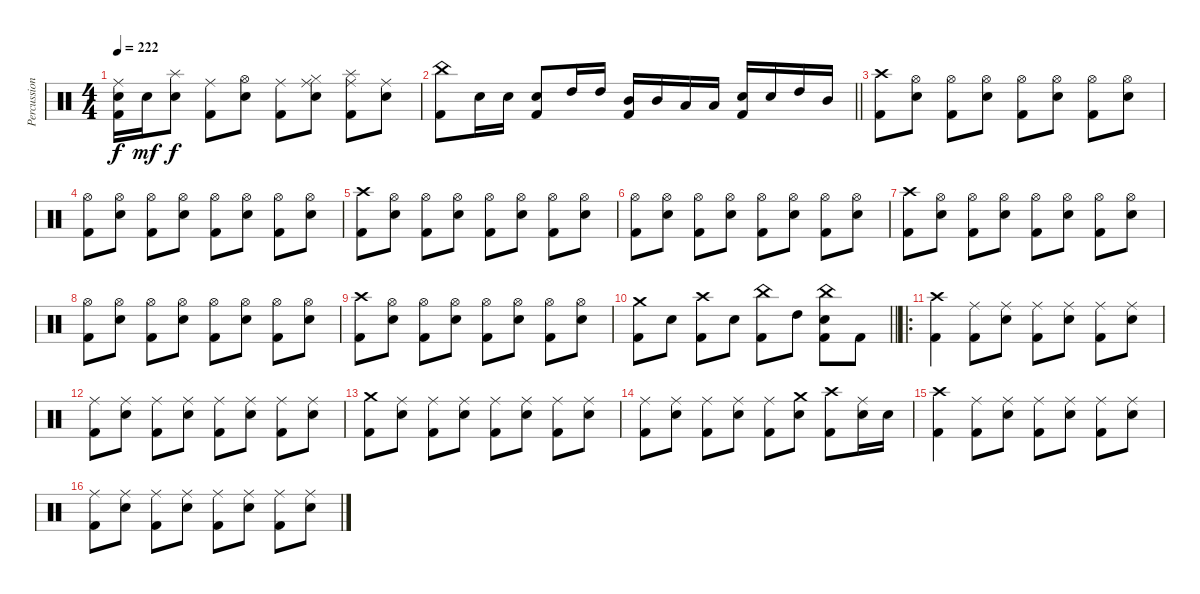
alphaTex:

\track ("Percussions" "Percussion") {instrument percussion}
\staff {score}
\articulation defaults
\ts (4 4)
\tempo 222
\clef neutral
\ks c
("Ride (middle)" "Electric Snare (hit)" "Kick (hit) 2").16{dy f} "Electric Snare (hit)".16{dy mf} ("Splash (hit)" "Electric Snare (hit)").8{dy f} ("Ride (middle)" "Kick (hit) 2").8 ("Hi-Hat (open)" "Electric Snare (hit)").8 ("Ride (middle)" "Kick (hit) 2").8 ("Ride (middle)" "Hi-Hat (closed)" "Electric Snare (hit)").8 ("Ride (middle)" "Splash (hit)" "Kick (hit) 2").8 ("Ride (middle)" "Electric Snare (hit)").8 |
\barLineRight lightlight
("China (hit)" "Kick (hit) 2").8 "Electric Snare (hit)".16 "Electric Snare (hit)".16 ("Electric Snare (hit)" "Kick (hit) 2").8 "High Tom (hit)".16 "High Tom (hit)".16 ("Mid Tom (hit)" "Kick (hit) 2").16 "Mid Tom (hit)".16 "Low Tom (hit)".16 "Low Tom (hit)".16 ("Electric Snare (hit)" "Kick (hit) 2").16 "Electric Snare (hit)".16 "High Tom (hit)".16 "Mid Tom (hit)".16 |
\section ("" "")
("Crash high (hit)" "Kick (hit) 2").8 ("Hi-Hat (open)" "Electric Snare (hit)").8 ("Hi-Hat (open)" "Kick (hit) 2").8 ("Hi-Hat (open)" "Electric Snare (hit)").8 ("Hi-Hat (open)" "Kick (hit) 2").8 ("Hi-Hat (open)" "Electric Snare (hit)").8 ("Hi-Hat (open)" "Kick (hit) 2").8 ("Hi-Hat (open)" "Electric Snare (hit)").8 |
("Hi-Hat (open)" "Kick (hit) 2").8 ("Hi-Hat (open)" "Electric Snare (hit)").8 ("Hi-Hat (open)" "Kick (hit) 2").8 ("Hi-Hat (open)" "Electric Snare (hit)").8 ("Hi-Hat (open)" "Kick (hit) 2").8 ("Hi-Hat (open)" "Electric Snare (hit)").8 ("Hi-Hat (open)" "Kick (hit) 2").8 ("Hi-Hat (open)" "Electric Snare (hit)").8 |
("Crash high (hit)" "Kick (hit) 2").8 ("Hi-Hat (open)" "Electric Snare (hit)").8 ("Hi-Hat (open)" "Kick (hit) 2").8 ("Hi-Hat (open)" "Electric Snare (hit)").8 ("Hi-Hat (open)" "Kick (hit) 2").8 ("Hi-Hat (open)" "Electric Snare (hit)").8 ("Hi-Hat (open)" "Kick (hit) 2").8 ("Hi-Hat (open)" "Electric Snare (hit)").8 |
("Hi-Hat (open)" "Kick (hit) 2").8 ("Hi-Hat (open)" "Electric Snare (hit)").8 ("Hi-Hat (open)" "Kick (hit) 2").8 ("Hi-Hat (open)" "Electric Snare (hit)").8 ("Hi-Hat (open)" "Kick (hit) 2").8 ("Hi-Hat (open)" "Electric Snare (hit)").8 ("Hi-Hat (open)" "Kick (hit) 2").8 ("Hi-Hat (open)" "Electric Snare (hit)").8 |
("Crash high (hit)" "Kick (hit) 2").8 ("Hi-Hat (open)" "Electric Snare (hit)").8 ("Hi-Hat (open)" "Kick (hit) 2").8 ("Hi-Hat (open)" "Electric Snare (hit)").8 ("Hi-Hat (open)" "Kick (hit) 2").8 ("Hi-Hat (open)" "Electric Snare (hit)").8 ("Hi-Hat (open)" "Kick (hit) 2").8 ("Hi-Hat (open)" "Electric Snare (hit)").8 |
("Hi-Hat (open)" "Kick (hit) 2").8 ("Hi-Hat (open)" "Electric Snare (hit)").8 ("Hi-Hat (open)" "Kick (hit) 2").8 ("Hi-Hat (open)" "Electric Snare (hit)").8 ("Hi-Hat (open)" "Kick (hit) 2").8 ("Hi-Hat (open)" "Electric Snare (hit)").8 ("Hi-Hat (open)" "Kick (hit) 2").8 ("Hi-Hat (open)" "Electric Snare (hit)").8 |
("Crash high (hit)" "Kick (hit) 2").8 ("Hi-Hat (open)" "Electric Snare (hit)").8 ("Hi-Hat (open)" "Kick (hit) 2").8 ("Hi-Hat (open)" "Electric Snare (hit)").8 ("Hi-Hat (open)" "Kick (hit) 2").8 ("Hi-Hat (open)" "Electric Snare (hit)").8 ("Hi-Hat (open)" "Kick (hit) 2").8 ("Hi-Hat (open)" "Electric Snare (hit)").8 |
\barLineRight lightlight
("Crash medium (hit)" "Kick (hit) 2").8 "Electric Snare (hit)".8 ("Crash high (hit)" "Kick (hit) 2").8 "Electric Snare (hit)".8 ("China (hit)" "Kick (hit) 2").8 "High Tom (hit)".8 ("China (hit)" "Electric Snare (hit)" "Kick (hit) 2").8 "Kick (hit) 2".8 |
\ro
\section ("" "")
("Crash high (hit)" "Kick (hit) 2").4 ("Ride (middle)" "Kick (hit) 2").8 ("Ride (middle)" "Electric Snare (hit)").8 ("Ride (middle)" "Kick (hit) 2").8 ("Ride (middle)" "Electric Snare (hit)").8 ("Ride (middle)" "Kick (hit) 2").8 ("Ride (middle)" "Electric Snare (hit)").8 |
("Ride (middle)" "Kick (hit) 2").8 ("Ride (middle)" "Electric Snare (hit)").8 ("Ride (middle)" "Kick (hit) 2").8 ("Ride (middle)" "Electric Snare (hit)").8 ("Ride (middle)" "Kick (hit) 2").8 ("Ride (middle)" "Electric Snare (hit)").8 ("Ride (middle)" "Kick (hit) 2").8 ("Ride (middle)" "Electric Snare (hit)").8 |
("Crash medium (hit)" "Kick (hit) 2").8 ("Ride (middle)" "Electric Snare (hit)").8 ("Ride (middle)" "Kick (hit) 2").8 ("Ride (middle)" "Electric Snare (hit)").8 ("Ride (middle)" "Kick (hit) 2").8 ("Ride (middle)" "Electric Snare (hit)").8 ("Ride (middle)" "Kick (hit) 2").8 ("Ride (middle)" "Electric Snare (hit)").8 |
("Ride (middle)" "Kick (hit) 2").8 ("Ride (middle)" "Electric Snare (hit)").8 ("Ride (middle)" "Kick (hit) 2").8 ("Ride (middle)" "Electric Snare (hit)").8 ("Ride (middle)" "Kick (hit) 2").8 ("Crash medium (hit)" "Electric Snare (hit)").8 ("Crash high (hit)" "Kick (hit) 2").8 ("Ride (middle)" "Electric Snare (hit)").16 "Electric Snare (hit)".16 |
("Crash high (hit)" "Kick (hit) 2").4 ("Ride (middle)" "Kick (hit) 2").8 ("Ride (middle)" "Electric Snare (hit)").8 ("Ride (middle)" "Kick (hit) 2").8 ("Ride (middle)" "Electric Snare (hit)").8 ("Ride (middle)" "Kick (hit) 2").8 ("Ride (middle)" "Electric Snare (hit)").8 |
("Ride (middle)" "Kick (hit) 2").8 ("Ride (middle)" "Electric Snare (hit)").8 ("Ride (middle)" "Kick (hit) 2").8 ("Ride (middle)" "Electric Snare (hit)").8 ("Ride (middle)" "Kick (hit) 2").8 ("Ride (middle)" "Electric Snare (hit)").8 ("Ride (middle)" "Kick (hit) 2").8 ("Ride (middle)" "Electric Snare (hit)").8
